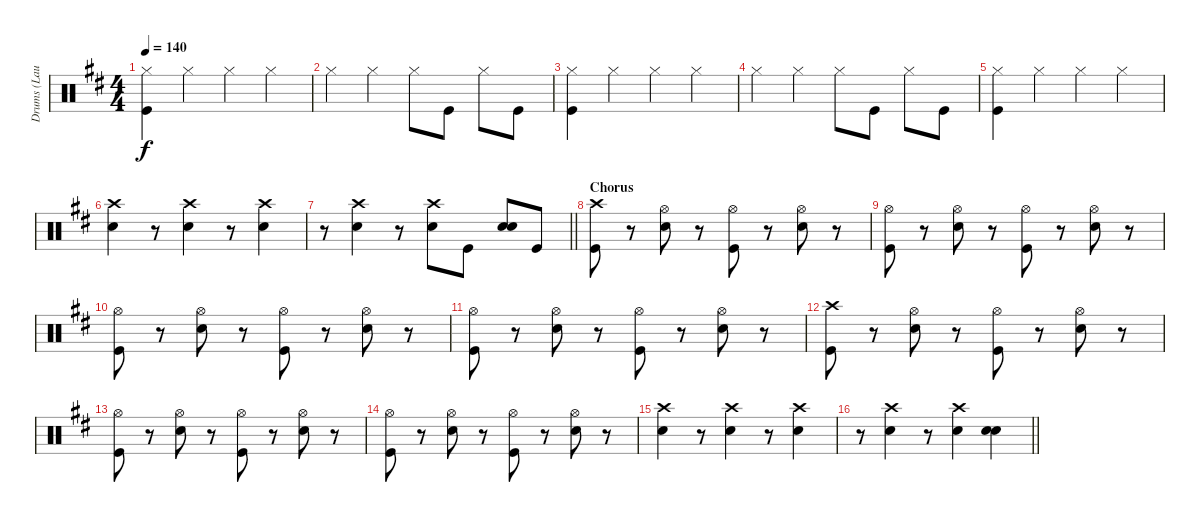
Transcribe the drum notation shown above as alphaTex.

\track ("Drums (Laust Sonne)" "Drums (Lau") {instrument percussion}
\staff {score}
\articulation defaults
\ts (4 4)
\tempo 140
\clef neutral
\ks d
("Hi-Hat (closed)" "Kick (hit)").4{dy f} "Hi-Hat (closed)".4 "Hi-Hat (closed)".4 "Hi-Hat (closed)".4 |
"Hi-Hat (closed)".4 "Hi-Hat (closed)".4 "Hi-Hat (closed)".8 "Kick (hit)".8 "Hi-Hat (closed)".8 "Kick (hit)".8 |
("Hi-Hat (closed)" "Kick (hit)").4 "Hi-Hat (closed)".4 "Hi-Hat (closed)".4 "Hi-Hat (closed)".4 |
"Hi-Hat (closed)".4 "Hi-Hat (closed)".4 "Hi-Hat (closed)".8 "Kick (hit)".8 "Hi-Hat (closed)".8 "Kick (hit)".8 |
("Hi-Hat (closed)" "Kick (hit)").4 "Hi-Hat (closed)".4 "Hi-Hat (closed)".4 "Hi-Hat (closed)".4 |
("Crash high (hit)" "Snare (hit) 2").4 r.8 ("Crash high (hit)" "Snare (hit) 2").4 r.8 ("Crash high (hit)" "Snare (hit) 2").4 |
\barLineRight lightlight
r.8 ("Crash high (hit)" "Snare (hit) 2").4 r.8 ("Crash high (hit)" "Snare (hit) 2").8 "Kick (hit)".8 ("Snare (hit) 2" "Snare (hit) 2").8 "Kick (hit)".8 |
\section ("" "Chorus")
("Crash high (hit)" "Kick (hit)").8 r.8 ("Hi-Hat (open)" "Snare (hit) 2").8 r.8 ("Hi-Hat (open)" "Kick (hit)").8 r.8 ("Hi-Hat (open)" "Snare (hit) 2").8 r.8 |
("Hi-Hat (open)" "Kick (hit)").8 r.8 ("Hi-Hat (open)" "Snare (hit) 2").8 r.8 ("Hi-Hat (open)" "Kick (hit)").8 r.8 ("Hi-Hat (open)" "Snare (hit) 2").8 r.8 |
("Hi-Hat (open)" "Kick (hit)").8 r.8 ("Hi-Hat (open)" "Snare (hit) 2").8 r.8 ("Hi-Hat (open)" "Kick (hit)").8 r.8 ("Hi-Hat (open)" "Snare (hit) 2").8 r.8 |
("Hi-Hat (open)" "Kick (hit)").8 r.8 ("Hi-Hat (open)" "Snare (hit) 2").8 r.8 ("Hi-Hat (open)" "Kick (hit)").8 r.8 ("Hi-Hat (open)" "Snare (hit) 2").8 r.8 |
("Crash high (hit)" "Kick (hit)").8 r.8 ("Hi-Hat (open)" "Snare (hit) 2").8 r.8 ("Hi-Hat (open)" "Kick (hit)").8 r.8 ("Hi-Hat (open)" "Snare (hit) 2").8 r.8 |
("Hi-Hat (open)" "Kick (hit)").8 r.8 ("Hi-Hat (open)" "Snare (hit) 2").8 r.8 ("Hi-Hat (open)" "Kick (hit)").8 r.8 ("Hi-Hat (open)" "Snare (hit) 2").8 r.8 |
("Hi-Hat (open)" "Kick (hit)").8 r.8 ("Hi-Hat (open)" "Snare (hit) 2").8 r.8 ("Hi-Hat (open)" "Kick (hit)").8 r.8 ("Hi-Hat (open)" "Snare (hit) 2").8 r.8 |
("Crash high (hit)" "Snare (hit) 2").4 r.8 ("Crash high (hit)" "Snare (hit) 2").4 r.8 ("Crash high (hit)" "Snare (hit) 2").4 |
\barLineRight lightlight
r.8 ("Crash high (hit)" "Snare (hit) 2").4 r.8 ("Crash high (hit)" "Snare (hit) 2").4 ("Snare (hit) 2" "Snare (hit) 2").4
